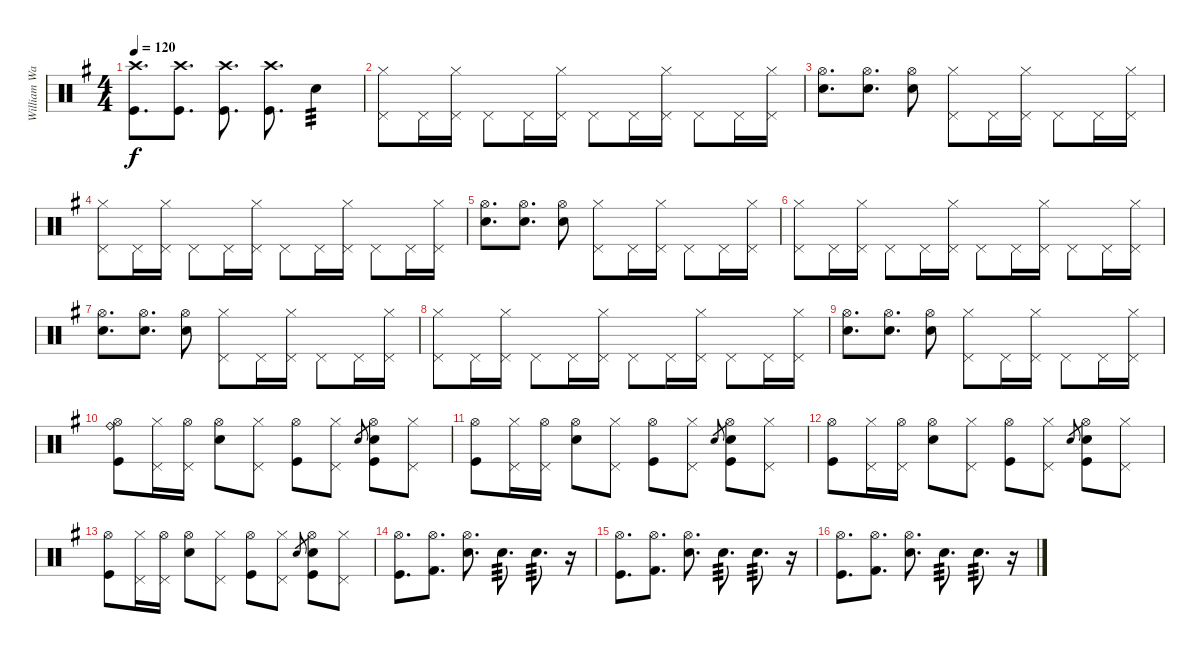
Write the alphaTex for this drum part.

\track ("William Ward" "William Wa") {instrument percussion}
\staff {score}
\articulation defaults
\ts (4 4)
\tempo 120
\clef neutral
\ks g
("Kick (hit)" "Crash high (hit)").8{d dy f} ("Kick (hit)" "Crash high (hit)").8{d} ("Kick (hit)" "Crash high (hit)").8{d} ("Kick (hit)" "Crash high (hit)").8{d} "Electric Snare (hit)".4{tp 3} |
("Pedal Hi-Hat (hit)" "Hi-Hat (closed)").8 "Pedal Hi-Hat (hit)".16 ("Pedal Hi-Hat (hit)" "Hi-Hat (closed)").16 "Pedal Hi-Hat (hit)".8 "Pedal Hi-Hat (hit)".16 ("Pedal Hi-Hat (hit)" "Hi-Hat (closed)").16 "Pedal Hi-Hat (hit)".8 "Pedal Hi-Hat (hit)".16 ("Pedal Hi-Hat (hit)" "Hi-Hat (closed)").16 "Pedal Hi-Hat (hit)".8 "Pedal Hi-Hat (hit)".16 ("Pedal Hi-Hat (hit)" "Hi-Hat (closed)").16 |
("Electric Snare (hit)" "Hi-Hat (open)").8{d} ("Snare (hit) 2" "Hi-Hat (open)").8{d} ("Electric Snare (hit)" "Hi-Hat (open)").8 ("Pedal Hi-Hat (hit)" "Hi-Hat (closed)").8 "Pedal Hi-Hat (hit)".16 ("Pedal Hi-Hat (hit)" "Hi-Hat (closed)").16 "Pedal Hi-Hat (hit)".8 "Pedal Hi-Hat (hit)".16 ("Pedal Hi-Hat (hit)" "Hi-Hat (closed)").16 |
("Pedal Hi-Hat (hit)" "Hi-Hat (closed)").8 "Pedal Hi-Hat (hit)".16 ("Pedal Hi-Hat (hit)" "Hi-Hat (closed)").16 "Pedal Hi-Hat (hit)".8 "Pedal Hi-Hat (hit)".16 ("Pedal Hi-Hat (hit)" "Hi-Hat (closed)").16 "Pedal Hi-Hat (hit)".8 "Pedal Hi-Hat (hit)".16 ("Pedal Hi-Hat (hit)" "Hi-Hat (closed)").16 "Pedal Hi-Hat (hit)".8 "Pedal Hi-Hat (hit)".16 ("Pedal Hi-Hat (hit)" "Hi-Hat (closed)").16 |
("Electric Snare (hit)" "Hi-Hat (open)").8{d} ("Snare (hit) 2" "Hi-Hat (open)").8{d} ("Electric Snare (hit)" "Hi-Hat (open)").8 ("Pedal Hi-Hat (hit)" "Hi-Hat (closed)").8 "Pedal Hi-Hat (hit)".16 ("Pedal Hi-Hat (hit)" "Hi-Hat (closed)").16 "Pedal Hi-Hat (hit)".8 "Pedal Hi-Hat (hit)".16 ("Pedal Hi-Hat (hit)" "Hi-Hat (closed)").16 |
("Pedal Hi-Hat (hit)" "Hi-Hat (closed)").8 "Pedal Hi-Hat (hit)".16 ("Pedal Hi-Hat (hit)" "Hi-Hat (closed)").16 "Pedal Hi-Hat (hit)".8 "Pedal Hi-Hat (hit)".16 ("Pedal Hi-Hat (hit)" "Hi-Hat (closed)").16 "Pedal Hi-Hat (hit)".8 "Pedal Hi-Hat (hit)".16 ("Pedal Hi-Hat (hit)" "Hi-Hat (closed)").16 "Pedal Hi-Hat (hit)".8 "Pedal Hi-Hat (hit)".16 ("Pedal Hi-Hat (hit)" "Hi-Hat (closed)").16 |
("Electric Snare (hit)" "Hi-Hat (open)").8{d} ("Snare (hit) 2" "Hi-Hat (open)").8{d} ("Electric Snare (hit)" "Hi-Hat (open)").8 ("Pedal Hi-Hat (hit)" "Hi-Hat (closed)").8 "Pedal Hi-Hat (hit)".16 ("Pedal Hi-Hat (hit)" "Hi-Hat (closed)").16 "Pedal Hi-Hat (hit)".8 "Pedal Hi-Hat (hit)".16 ("Pedal Hi-Hat (hit)" "Hi-Hat (closed)").16 |
("Pedal Hi-Hat (hit)" "Hi-Hat (closed)").8 "Pedal Hi-Hat (hit)".16 ("Pedal Hi-Hat (hit)" "Hi-Hat (closed)").16 "Pedal Hi-Hat (hit)".8 "Pedal Hi-Hat (hit)".16 ("Pedal Hi-Hat (hit)" "Hi-Hat (closed)").16 "Pedal Hi-Hat (hit)".8 "Pedal Hi-Hat (hit)".16 ("Pedal Hi-Hat (hit)" "Hi-Hat (closed)").16 "Pedal Hi-Hat (hit)".8 "Pedal Hi-Hat (hit)".16 ("Pedal Hi-Hat (hit)" "Hi-Hat (closed)").16 |
("Electric Snare (hit)" "Hi-Hat (open)").8{d} ("Snare (hit) 2" "Hi-Hat (open)").8{d} ("Electric Snare (hit)" "Hi-Hat (open)").8 ("Pedal Hi-Hat (hit)" "Hi-Hat (closed)").8 "Pedal Hi-Hat (hit)".16 ("Pedal Hi-Hat (hit)" "Hi-Hat (closed)").16 "Pedal Hi-Hat (hit)".8 "Pedal Hi-Hat (hit)".16 ("Pedal Hi-Hat (hit)" "Hi-Hat (closed)").16 |
("Kick (hit)" "Hi-Hat (open)" "Ride (bell)").8 ("Pedal Hi-Hat (hit)" "Hi-Hat (closed)").16 ("Pedal Hi-Hat (hit)" "Hi-Hat (open)").16 ("Hi-Hat (open)" "Electric Snare (hit)").8 ("Hi-Hat (closed)" "Pedal Hi-Hat (hit)").8 ("Kick (hit)" "Hi-Hat (open)").8 ("Pedal Hi-Hat (hit)" "Hi-Hat (closed)").8 "Electric Snare (hit)".8{gr} ("Kick (hit)" "Electric Snare (hit)" "Hi-Hat (open)").8 ("Pedal Hi-Hat (hit)" "Hi-Hat (closed)").8 |
("Kick (hit)" "Hi-Hat (open)").8 ("Pedal Hi-Hat (hit)" "Hi-Hat (closed)").16 ("Pedal Hi-Hat (hit)" "Hi-Hat (open)").16 ("Hi-Hat (open)" "Electric Snare (hit)").8 ("Hi-Hat (closed)" "Pedal Hi-Hat (hit)").8 ("Kick (hit)" "Hi-Hat (open)").8 ("Pedal Hi-Hat (hit)" "Hi-Hat (closed)").8 "Electric Snare (hit)".8{gr} ("Kick (hit)" "Electric Snare (hit)" "Hi-Hat (open)").8 ("Pedal Hi-Hat (hit)" "Hi-Hat (closed)").8 |
("Kick (hit)" "Hi-Hat (open)").8 ("Pedal Hi-Hat (hit)" "Hi-Hat (closed)").16 ("Pedal Hi-Hat (hit)" "Hi-Hat (open)").16 ("Hi-Hat (open)" "Electric Snare (hit)").8 ("Hi-Hat (closed)" "Pedal Hi-Hat (hit)").8 ("Kick (hit)" "Hi-Hat (open)").8 ("Pedal Hi-Hat (hit)" "Hi-Hat (closed)").8 "Electric Snare (hit)".8{gr} ("Kick (hit)" "Electric Snare (hit)" "Hi-Hat (open)").8 ("Pedal Hi-Hat (hit)" "Hi-Hat (closed)").8 |
("Kick (hit)" "Hi-Hat (open)").8 ("Pedal Hi-Hat (hit)" "Hi-Hat (closed)").16 ("Pedal Hi-Hat (hit)" "Hi-Hat (open)").16 ("Hi-Hat (open)" "Electric Snare (hit)").8 ("Hi-Hat (closed)" "Pedal Hi-Hat (hit)").8 ("Kick (hit)" "Hi-Hat (open)").8 ("Pedal Hi-Hat (hit)" "Hi-Hat (closed)").8 "Electric Snare (hit)".8{gr} ("Kick (hit)" "Electric Snare (hit)" "Hi-Hat (open)").8 ("Pedal Hi-Hat (hit)" "Hi-Hat (closed)").8 |
("Kick (hit)" "Hi-Hat (open)").8{d} ("Kick (hit) 2" "Hi-Hat (open)").8{d} ("Electric Snare (hit)" "Hi-Hat (open)").8{d} "Electric Snare (hit)".8{d tp 3} "Electric Snare (hit)".8{d tp 3} r.16 |
("Kick (hit)" "Hi-Hat (open)").8{d} ("Kick (hit) 2" "Hi-Hat (open)").8{d} ("Electric Snare (hit)" "Hi-Hat (open)").8{d} "Electric Snare (hit)".8{d tp 3} "Electric Snare (hit)".8{d tp 3} r.16 |
("Kick (hit)" "Hi-Hat (open)").8{d} ("Kick (hit) 2" "Hi-Hat (open)").8{d} ("Electric Snare (hit)" "Hi-Hat (open)").8{d} "Electric Snare (hit)".8{d tp 3} "Electric Snare (hit)".8{d tp 3} r.16
